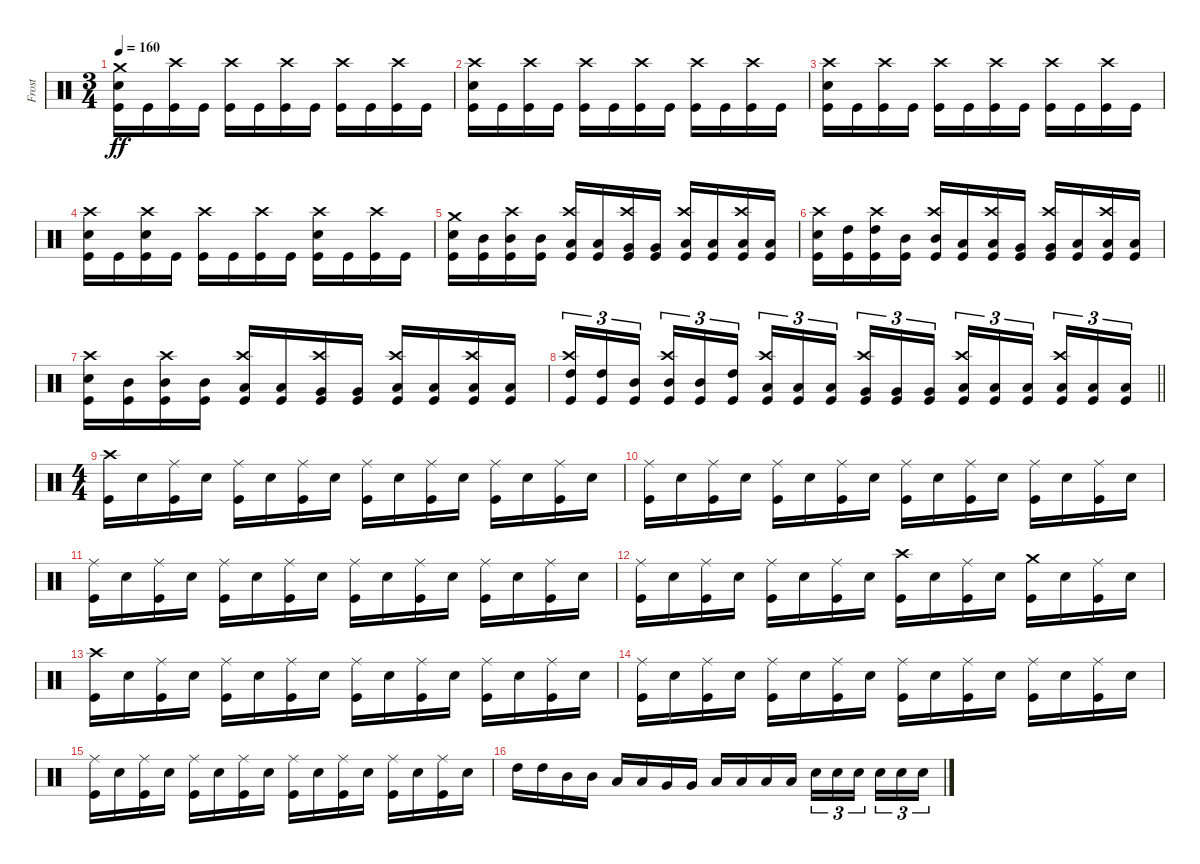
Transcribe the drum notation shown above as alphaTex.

\track ("Frost" "Frost") {instrument percussion}
\staff {score}
\articulation defaults
\ts (3 4)
\tempo 160
\clef neutral
\ks c
("Crash medium (hit)" "Snare (hit) 2" "Kick (hit)").16{dy ff} "Kick (hit)".16 ("Crash high (hit)" "Kick (hit)").16 "Kick (hit)".16 ("Crash high (hit)" "Kick (hit)").16 "Kick (hit)".16 ("Crash high (hit)" "Kick (hit)").16 "Kick (hit)".16 ("Crash high (hit)" "Kick (hit)").16 "Kick (hit)".16 ("Crash high (hit)" "Kick (hit)").16 "Kick (hit)".16 |
("Crash high (hit)" "Snare (hit) 2" "Kick (hit)").16 "Kick (hit)".16 ("Crash high (hit)" "Kick (hit)").16 "Kick (hit)".16 ("Crash high (hit)" "Kick (hit)").16 "Kick (hit)".16 ("Crash high (hit)" "Kick (hit)").16 "Kick (hit)".16 ("Crash high (hit)" "Kick (hit)").16 "Kick (hit)".16 ("Crash high (hit)" "Kick (hit)").16 "Kick (hit)".16 |
("Crash high (hit)" "Snare (hit) 2" "Kick (hit)").16 "Kick (hit)".16 ("Crash high (hit)" "Kick (hit)").16 "Kick (hit)".16 ("Crash high (hit)" "Kick (hit)").16 "Kick (hit)".16 ("Crash high (hit)" "Kick (hit)").16 "Kick (hit)".16 ("Crash high (hit)" "Kick (hit)").16 "Kick (hit)".16 ("Crash high (hit)" "Kick (hit)").16 "Kick (hit)".16 |
("Crash high (hit)" "Snare (hit) 2" "Kick (hit)").16 "Kick (hit)".16 ("Crash high (hit)" "Snare (hit) 2" "Kick (hit)").16 "Kick (hit)".16 ("Crash high (hit)" "Kick (hit)").16 "Kick (hit)".16 ("Crash high (hit)" "Kick (hit)").16 "Kick (hit)".16 ("Crash high (hit)" "Snare (hit) 2" "Kick (hit)").16 "Kick (hit)".16 ("Crash high (hit)" "Kick (hit)").16 "Kick (hit)".16 |
("Crash medium (hit)" "Snare (hit) 2" "Kick (hit)").16 ("Mid Tom (hit)" "Kick (hit)").16 ("Crash high (hit)" "Mid Tom (hit)" "Kick (hit)").16 ("Mid Tom (hit)" "Kick (hit)").16 ("Crash high (hit)" "Low Tom (hit)" "Kick (hit)").16 ("Low Tom (hit)" "Kick (hit)").16 ("Crash high (hit)" "Very Low Tom (hit)" "Kick (hit)").16 ("Very Low Tom (hit)" "Kick (hit)").16 ("Crash high (hit)" "Low Floor Tom (hit)" "Kick (hit)").16 ("Low Floor Tom (hit)" "Kick (hit)").16 ("Crash high (hit)" "Low Floor Tom (hit)" "Kick (hit)").16 ("Low Floor Tom (hit)" "Kick (hit)").16 |
("Crash high (hit)" "Snare (hit) 2" "Kick (hit)").16 ("High Tom (hit)" "Kick (hit)").16 ("Crash high (hit)" "High Tom (hit)" "Kick (hit)").16 ("Mid Tom (hit)" "Kick (hit)").16 ("Crash high (hit)" "Mid Tom (hit)" "Kick (hit)").16 ("Low Tom (hit)" "Kick (hit)").16 ("Crash high (hit)" "Low Tom (hit)" "Kick (hit)").16 ("Very Low Tom (hit)" "Kick (hit)").16 ("Crash high (hit)" "Very Low Tom (hit)" "Kick (hit)").16 ("Low Floor Tom (hit)" "Kick (hit)").16 ("Crash high (hit)" "Low Floor Tom (hit)" "Kick (hit)").16 ("Low Floor Tom (hit)" "Kick (hit)").16 |
("Crash high (hit)" "Snare (hit) 2" "Kick (hit)").16 ("Mid Tom (hit)" "Kick (hit)").16 ("Crash high (hit)" "Mid Tom (hit)" "Kick (hit)").16 ("Mid Tom (hit)" "Kick (hit)").16 ("Crash high (hit)" "Low Tom (hit)" "Kick (hit)").16 ("Low Tom (hit)" "Kick (hit)").16 ("Crash high (hit)" "Very Low Tom (hit)" "Kick (hit)").16 ("Very Low Tom (hit)" "Kick (hit)").16 ("Crash high (hit)" "Low Floor Tom (hit)" "Kick (hit)").16 ("Low Floor Tom (hit)" "Kick (hit)").16 ("Crash high (hit)" "Low Floor Tom (hit)" "Kick (hit)").16 ("Low Floor Tom (hit)" "Kick (hit)").16 |
\barLineRight lightlight
("Crash high (hit)" "High Tom (hit)" "Kick (hit)").16{tu (3 2)} ("High Tom (hit)" "Kick (hit)").16{tu (3 2)} ("Mid Tom (hit)" "Kick (hit)").16{tu (3 2) beam splitsecondary} ("Crash high (hit)" "Mid Tom (hit)" "Kick (hit)").16{tu (3 2)} ("Mid Tom (hit)" "Kick (hit)").16{tu (3 2)} ("High Tom (hit)" "Kick (hit)").16{tu (3 2)} ("Crash high (hit)" "Low Tom (hit)" "Kick (hit)").16{tu (3 2)} ("Low Tom (hit)" "Kick (hit)").16{tu (3 2)} ("Low Tom (hit)" "Kick (hit)").16{tu (3 2) beam splitsecondary} ("Crash high (hit)" "Very Low Tom (hit)" "Kick (hit)").16{tu (3 2)} ("Very Low Tom (hit)" "Kick (hit)").16{tu (3 2)} ("Very Low Tom (hit)" "Kick (hit)").16{tu (3 2)} ("Crash high (hit)" "Low Floor Tom (hit)" "Kick (hit)").16{tu (3 2)} ("Low Floor Tom (hit)" "Kick (hit)").16{tu (3 2)} ("Low Floor Tom (hit)" "Kick (hit)").16{tu (3 2) beam splitsecondary} ("Crash high (hit)" "Low Floor Tom (hit)" "Kick (hit)").16{tu (3 2)} ("Low Floor Tom (hit)" "Kick (hit)").16{tu (3 2)} ("Low Floor Tom (hit)" "Kick (hit)").16{tu (3 2)} |
\ts (4 4)
("Crash high (hit)" "Kick (hit)").16 "Snare (hit) 2".16 ("Ride (middle)" "Kick (hit)").16 "Snare (hit) 2".16 ("Ride (middle)" "Kick (hit)").16 "Snare (hit) 2".16 ("Ride (middle)" "Kick (hit)").16 "Snare (hit) 2".16 ("Ride (middle)" "Kick (hit)").16 "Snare (hit) 2".16 ("Ride (middle)" "Kick (hit)").16 "Snare (hit) 2".16 ("Ride (middle)" "Kick (hit)").16 "Snare (hit) 2".16 ("Ride (middle)" "Kick (hit)").16 "Snare (hit) 2".16 |
("Ride (middle)" "Kick (hit)").16 "Snare (hit) 2".16 ("Ride (middle)" "Kick (hit)").16 "Snare (hit) 2".16 ("Ride (middle)" "Kick (hit)").16 "Snare (hit) 2".16 ("Ride (middle)" "Kick (hit)").16 "Snare (hit) 2".16 ("Ride (middle)" "Kick (hit)").16 "Snare (hit) 2".16 ("Ride (middle)" "Kick (hit)").16 "Snare (hit) 2".16 ("Ride (middle)" "Kick (hit)").16 "Snare (hit) 2".16 ("Ride (middle)" "Kick (hit)").16 "Snare (hit) 2".16 |
("Ride (middle)" "Kick (hit)").16 "Snare (hit) 2".16 ("Ride (middle)" "Kick (hit)").16 "Snare (hit) 2".16 ("Ride (middle)" "Kick (hit)").16 "Snare (hit) 2".16 ("Ride (middle)" "Kick (hit)").16 "Snare (hit) 2".16 ("Ride (middle)" "Kick (hit)").16 "Snare (hit) 2".16 ("Ride (middle)" "Kick (hit)").16 "Snare (hit) 2".16 ("Ride (middle)" "Kick (hit)").16 "Snare (hit) 2".16 ("Ride (middle)" "Kick (hit)").16 "Snare (hit) 2".16 |
("Ride (middle)" "Kick (hit)").16 "Snare (hit) 2".16 ("Ride (middle)" "Kick (hit)").16 "Snare (hit) 2".16 ("Ride (middle)" "Kick (hit)").16 "Snare (hit) 2".16 ("Ride (middle)" "Kick (hit)").16 "Snare (hit) 2".16 ("Crash high (hit)" "Kick (hit)").16 "Snare (hit) 2".16 ("Ride (middle)" "Kick (hit)").16 "Snare (hit) 2".16 ("Crash medium (hit)" "Kick (hit)").16 "Snare (hit) 2".16 ("Ride (middle)" "Kick (hit)").16 "Snare (hit) 2".16 |
("Crash high (hit)" "Kick (hit)").16 "Snare (hit) 2".16 ("Ride (middle)" "Kick (hit)").16 "Snare (hit) 2".16 ("Ride (middle)" "Kick (hit)").16 "Snare (hit) 2".16 ("Ride (middle)" "Kick (hit)").16 "Snare (hit) 2".16 ("Ride (middle)" "Kick (hit)").16 "Snare (hit) 2".16 ("Ride (middle)" "Kick (hit)").16 "Snare (hit) 2".16 ("Ride (middle)" "Kick (hit)").16 "Snare (hit) 2".16 ("Ride (middle)" "Kick (hit)").16 "Snare (hit) 2".16 |
("Ride (middle)" "Kick (hit)").16 "Snare (hit) 2".16 ("Ride (middle)" "Kick (hit)").16 "Snare (hit) 2".16 ("Ride (middle)" "Kick (hit)").16 "Snare (hit) 2".16 ("Ride (middle)" "Kick (hit)").16 "Snare (hit) 2".16 ("Ride (middle)" "Kick (hit)").16 "Snare (hit) 2".16 ("Ride (middle)" "Kick (hit)").16 "Snare (hit) 2".16 ("Ride (middle)" "Kick (hit)").16 "Snare (hit) 2".16 ("Ride (middle)" "Kick (hit)").16 "Snare (hit) 2".16 |
("Ride (middle)" "Kick (hit)").16 "Snare (hit) 2".16 ("Ride (middle)" "Kick (hit)").16 "Snare (hit) 2".16 ("Ride (middle)" "Kick (hit)").16 "Snare (hit) 2".16 ("Ride (middle)" "Kick (hit)").16 "Snare (hit) 2".16 ("Ride (middle)" "Kick (hit)").16 "Snare (hit) 2".16 ("Ride (middle)" "Kick (hit)").16 "Snare (hit) 2".16 ("Ride (middle)" "Kick (hit)").16 "Snare (hit) 2".16 ("Ride (middle)" "Kick (hit)").16 "Snare (hit) 2".16 |
"High Tom (hit)".16 "High Tom (hit)".16 "Mid Tom (hit)".16 "Mid Tom (hit)".16 "Low Tom (hit)".16 "Low Tom (hit)".16 "Very Low Tom (hit)".16 "Very Low Tom (hit)".16 "Low Floor Tom (hit)".16 "Low Floor Tom (hit)".16 "Low Floor Tom (hit)".16 "Low Floor Tom (hit)".16 "Snare (hit) 2".16{tu (3 2)} "Snare (hit) 2".16{tu (3 2)} "Snare (hit) 2".16{tu (3 2) beam splitsecondary} "Snare (hit) 2".16{tu (3 2)} "Snare (hit) 2".16{tu (3 2)} "Snare (hit) 2".16{tu (3 2)}
